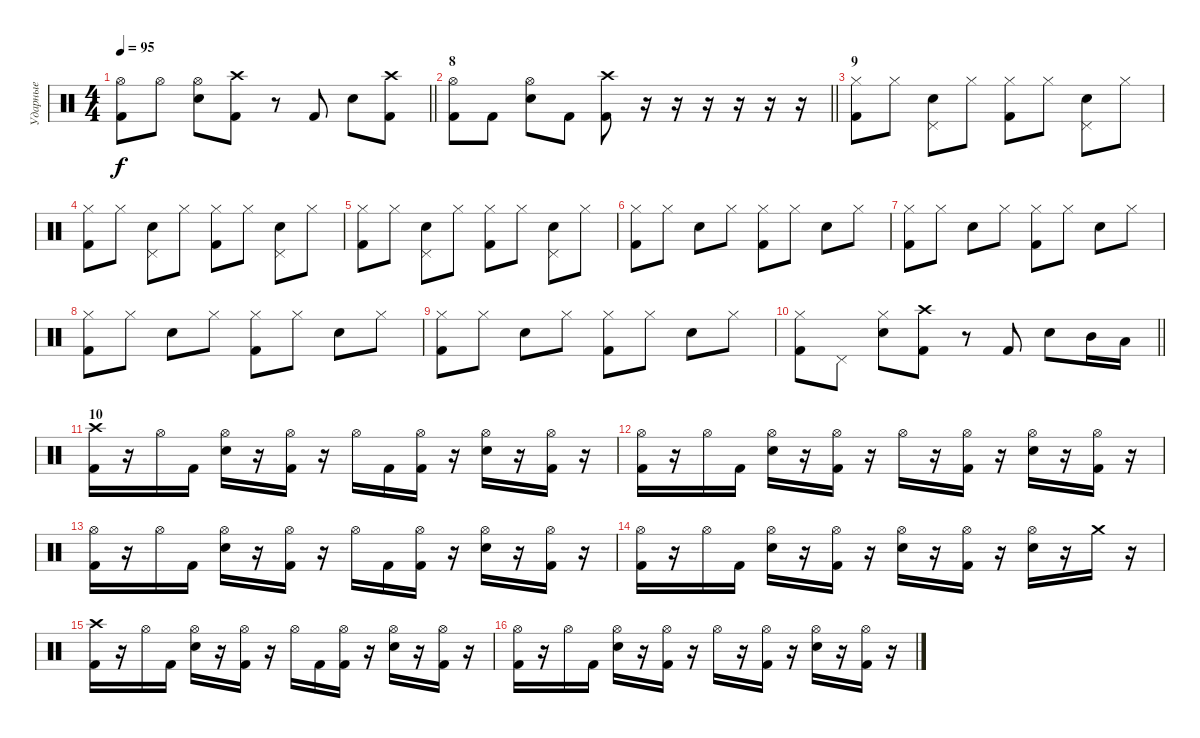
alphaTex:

\track ("Ударные" "Ударные") {instrument percussion}
\staff {score}
\articulation defaults
\ts (4 4)
\tempo 95
\clef neutral
\barLineRight lightlight
\ks c
("Hi-Hat (open)" "Kick (hit) 2").8{dy f} "Hi-Hat (open)".8 ("Hi-Hat (open)" "Electric Snare (hit)").8 ("Crash high (hit)" "Kick (hit) 2").8 r.8 "Kick (hit) 2".8 "Electric Snare (hit)".8 ("Crash high (hit)" "Kick (hit) 2").8 |
\section ("" "8")
\barLineRight lightlight
("Hi-Hat (open)" "Kick (hit) 2").8 "Kick (hit) 2".8 ("Hi-Hat (open)" "Electric Snare (hit)").8 "Kick (hit) 2".8 ("Crash high (hit)" "Kick (hit) 2").8 r.16 r.16 r.16 r.16 r.16 r.16 |
\section ("" "9")
("Hi-Hat (closed)" "Kick (hit) 2").8 "Hi-Hat (closed)".8 ("Pedal Hi-Hat (hit)" "Electric Snare (hit)").8 "Hi-Hat (closed)".8 ("Hi-Hat (closed)" "Kick (hit) 2").8 "Hi-Hat (closed)".8 ("Pedal Hi-Hat (hit)" "Electric Snare (hit)").8 "Hi-Hat (closed)".8 |
("Hi-Hat (closed)" "Kick (hit) 2").8 "Hi-Hat (closed)".8 ("Pedal Hi-Hat (hit)" "Electric Snare (hit)").8 "Hi-Hat (closed)".8 ("Hi-Hat (closed)" "Kick (hit) 2").8 "Hi-Hat (closed)".8 ("Pedal Hi-Hat (hit)" "Electric Snare (hit)").8 "Hi-Hat (closed)".8 |
("Hi-Hat (closed)" "Kick (hit) 2").8 "Hi-Hat (closed)".8 ("Pedal Hi-Hat (hit)" "Electric Snare (hit)").8 "Hi-Hat (closed)".8 ("Hi-Hat (closed)" "Kick (hit) 2").8 "Hi-Hat (closed)".8 ("Pedal Hi-Hat (hit)" "Electric Snare (hit)").8 "Hi-Hat (closed)".8 |
("Hi-Hat (closed)" "Kick (hit) 2").8 "Hi-Hat (closed)".8 "Electric Snare (hit)".8 "Hi-Hat (closed)".8 ("Hi-Hat (closed)" "Kick (hit) 2").8 "Hi-Hat (closed)".8 "Electric Snare (hit)".8 "Hi-Hat (closed)".8 |
("Hi-Hat (closed)" "Kick (hit) 2").8 "Hi-Hat (closed)".8 "Electric Snare (hit)".8 "Hi-Hat (closed)".8 ("Hi-Hat (closed)" "Kick (hit) 2").8 "Hi-Hat (closed)".8 "Electric Snare (hit)".8 "Hi-Hat (closed)".8 |
("Hi-Hat (closed)" "Kick (hit) 2").8 "Hi-Hat (closed)".8 "Electric Snare (hit)".8 "Hi-Hat (closed)".8 ("Hi-Hat (closed)" "Kick (hit) 2").8 "Hi-Hat (closed)".8 "Electric Snare (hit)".8 "Hi-Hat (closed)".8 |
("Hi-Hat (closed)" "Kick (hit) 2").8 "Hi-Hat (closed)".8 "Electric Snare (hit)".8 "Hi-Hat (closed)".8 ("Hi-Hat (closed)" "Kick (hit) 2").8 "Hi-Hat (closed)".8 "Electric Snare (hit)".8 "Hi-Hat (closed)".8 |
\barLineRight lightlight
("Hi-Hat (closed)" "Kick (hit) 2").8 "Pedal Hi-Hat (hit)".8 ("Hi-Hat (closed)" "Electric Snare (hit)").8 ("Crash high (hit)" "Kick (hit) 2").8 r.8 "Kick (hit) 2".8 "Electric Snare (hit)".8 "Mid Tom (hit)".16 "Low Tom (hit)".16 |
\section ("" "10")
("Crash high (hit)" "Kick (hit) 2").16 r.16 "Hi-Hat (open)".16 "Kick (hit) 2".16 ("Hi-Hat (open)" "Electric Snare (hit)").16 r.16 ("Hi-Hat (open)" "Kick (hit) 2").16 r.16 "Hi-Hat (open)".16 "Kick (hit) 2".16 ("Hi-Hat (open)" "Kick (hit) 2").16 r.16 ("Hi-Hat (open)" "Electric Snare (hit)").16 r.16 ("Hi-Hat (open)" "Kick (hit) 2").16 r.16 |
("Hi-Hat (open)" "Kick (hit) 2").16 r.16 "Hi-Hat (open)".16 "Kick (hit) 2".16 ("Hi-Hat (open)" "Electric Snare (hit)").16 r.16 ("Hi-Hat (open)" "Kick (hit) 2").16 r.16 "Hi-Hat (open)".16 r.16 ("Hi-Hat (open)" "Kick (hit) 2").16 r.16 ("Hi-Hat (open)" "Electric Snare (hit)").16 r.16 ("Hi-Hat (open)" "Kick (hit) 2").16 r.16 |
("Hi-Hat (open)" "Kick (hit) 2").16 r.16 "Hi-Hat (open)".16 "Kick (hit) 2".16 ("Hi-Hat (open)" "Electric Snare (hit)").16 r.16 ("Hi-Hat (open)" "Kick (hit) 2").16 r.16 "Hi-Hat (open)".16 "Kick (hit) 2".16 ("Hi-Hat (open)" "Kick (hit) 2").16 r.16 ("Hi-Hat (open)" "Electric Snare (hit)").16 r.16 ("Hi-Hat (open)" "Kick (hit) 2").16 r.16 |
("Hi-Hat (open)" "Kick (hit) 2").16 r.16 "Hi-Hat (open)".16 "Kick (hit) 2".16 ("Hi-Hat (open)" "Electric Snare (hit)").16 r.16 ("Hi-Hat (open)" "Kick (hit) 2").16 r.16 ("Hi-Hat (open)" "Electric Snare (hit)").16 r.16 ("Hi-Hat (open)" "Kick (hit) 2").16 r.16 ("Hi-Hat (open)" "Electric Snare (hit)").16 r.16 "Crash medium (hit)".16 r.16 |
("Crash high (hit)" "Kick (hit) 2").16 r.16 "Hi-Hat (open)".16 "Kick (hit) 2".16 ("Hi-Hat (open)" "Electric Snare (hit)").16 r.16 ("Hi-Hat (open)" "Kick (hit) 2").16 r.16 "Hi-Hat (open)".16 "Kick (hit) 2".16 ("Hi-Hat (open)" "Kick (hit) 2").16 r.16 ("Hi-Hat (open)" "Electric Snare (hit)").16 r.16 ("Hi-Hat (open)" "Kick (hit) 2").16 r.16 |
("Hi-Hat (open)" "Kick (hit) 2").16 r.16 "Hi-Hat (open)".16 "Kick (hit) 2".16 ("Hi-Hat (open)" "Electric Snare (hit)").16 r.16 ("Hi-Hat (open)" "Kick (hit) 2").16 r.16 "Hi-Hat (open)".16 r.16 ("Hi-Hat (open)" "Kick (hit) 2").16 r.16 ("Hi-Hat (open)" "Electric Snare (hit)").16 r.16 ("Hi-Hat (open)" "Kick (hit) 2").16 r.16
